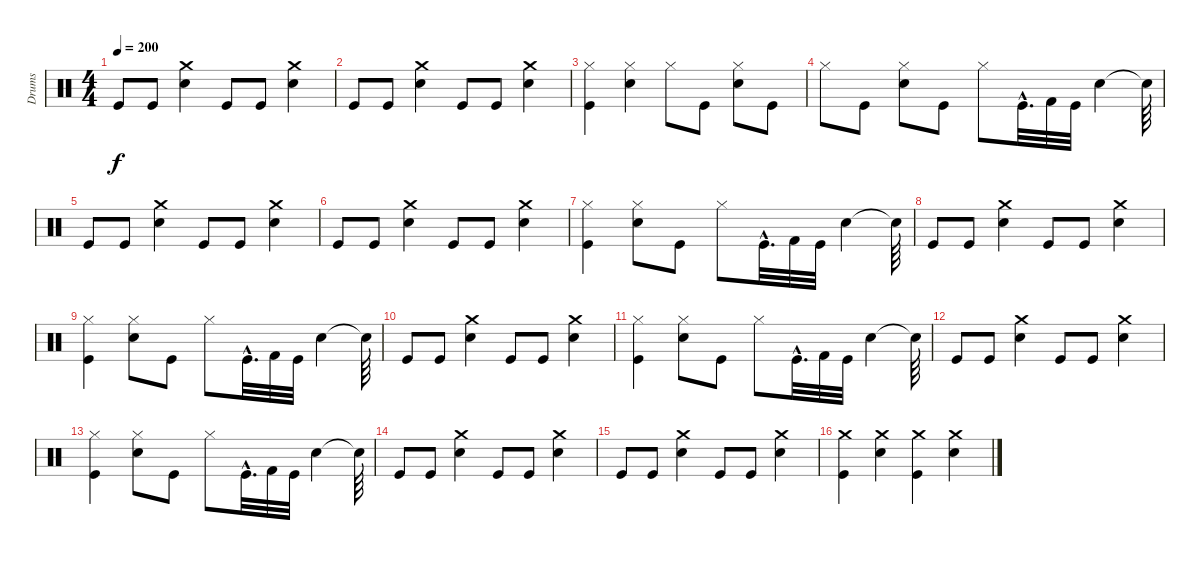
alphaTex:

\track ("Drums" "Drums") {instrument percussion}
\staff {score}
\articulation defaults
\ts (4 4)
\tempo 200
\clef neutral
\ks c "Kick (hit)".8{dy f} "Kick (hit)".8
("Snare (hit) 2" "Crash medium (hit)").4 "Kick (hit)".8 "Kick (hit)".8 ("Snare (hit) 2" "Crash medium (hit)").4 |
"Kick (hit)".8 "Kick (hit)".8 ("Snare (hit) 2" "Crash medium (hit)").4 "Kick (hit)".8 "Kick (hit)".8 ("Snare (hit) 2" "Crash medium (hit)").4 |
("Kick (hit)" "Hi-Hat (closed)").4 ("Hi-Hat (closed)" "Snare (hit) 2").4 "Hi-Hat (closed)".8 "Kick (hit)".8 ("Snare (hit) 2" "Hi-Hat (closed)").8 "Kick (hit)".8 |
"Hi-Hat (closed)".8 "Kick (hit)".8 ("Snare (hit) 2" "Hi-Hat (closed)").8 "Kick (hit)".8 "Hi-Hat (closed)".8 "Kick (hit)"{hac}.32{d} "Kick (hit) 2".32 "Kick (hit)".32 "Snare (hit) 2".4 "Snare (hit)"{t}.64 |
"Kick (hit)".8 "Kick (hit)".8 ("Snare (hit) 2" "Crash medium (hit)").4 "Kick (hit)".8 "Kick (hit)".8 ("Snare (hit) 2" "Crash medium (hit)").4 |
"Kick (hit)".8 "Kick (hit)".8 ("Snare (hit) 2" "Crash medium (hit)").4 "Kick (hit)".8 "Kick (hit)".8 ("Snare (hit) 2" "Crash medium (hit)").4 |
("Kick (hit)" "Hi-Hat (closed)").4 ("Snare (hit) 2" "Hi-Hat (closed)").8 "Kick (hit)".8 "Hi-Hat (closed)".8 "Kick (hit)"{hac}.32{d} "Kick (hit) 2".32 "Kick (hit)".32 "Snare (hit) 2".4 "Snare (hit)"{t}.64 |
"Kick (hit)".8 "Kick (hit)".8 ("Snare (hit) 2" "Crash medium (hit)").4 "Kick (hit)".8 "Kick (hit)".8 ("Snare (hit) 2" "Crash medium (hit)").4 |
("Kick (hit)" "Hi-Hat (closed)").4 ("Snare (hit) 2" "Hi-Hat (closed)").8 "Kick (hit)".8 "Hi-Hat (closed)".8 "Kick (hit)"{hac}.32{d} "Kick (hit) 2".32 "Kick (hit)".32 "Snare (hit) 2".4 "Snare (hit)"{t}.64 |
"Kick (hit)".8 "Kick (hit)".8 ("Snare (hit) 2" "Crash medium (hit)").4 "Kick (hit)".8 "Kick (hit)".8 ("Snare (hit) 2" "Crash medium (hit)").4 |
("Kick (hit)" "Hi-Hat (closed)").4 ("Snare (hit) 2" "Hi-Hat (closed)").8 "Kick (hit)".8 "Hi-Hat (closed)".8 "Kick (hit)"{hac}.32{d} "Kick (hit) 2".32 "Kick (hit)".32 "Snare (hit) 2".4 "Snare (hit)"{t}.64 |
"Kick (hit)".8 "Kick (hit)".8 ("Snare (hit) 2" "Crash medium (hit)").4 "Kick (hit)".8 "Kick (hit)".8 ("Snare (hit) 2" "Crash medium (hit)").4 |
("Kick (hit)" "Hi-Hat (closed)").4 ("Snare (hit) 2" "Hi-Hat (closed)").8 "Kick (hit)".8 "Hi-Hat (closed)".8 "Kick (hit)"{hac}.32{d} "Kick (hit) 2".32 "Kick (hit)".32 "Snare (hit) 2".4 "Snare (hit)"{t}.64 |
"Kick (hit)".8 "Kick (hit)".8 ("Snare (hit) 2" "Crash medium (hit)").4 "Kick (hit)".8 "Kick (hit)".8 ("Snare (hit) 2" "Crash medium (hit)").4 |
"Kick (hit)".8 "Kick (hit)".8 ("Snare (hit) 2" "Crash medium (hit)").4 "Kick (hit)".8 "Kick (hit)".8 ("Snare (hit) 2" "Crash medium (hit)").4 |
("Crash medium (hit)" "Kick (hit)").4 ("Crash medium (hit)" "Snare (hit) 2").4 ("Crash medium (hit)" "Kick (hit)").4 ("Crash medium (hit)" "Snare (hit) 2").4
